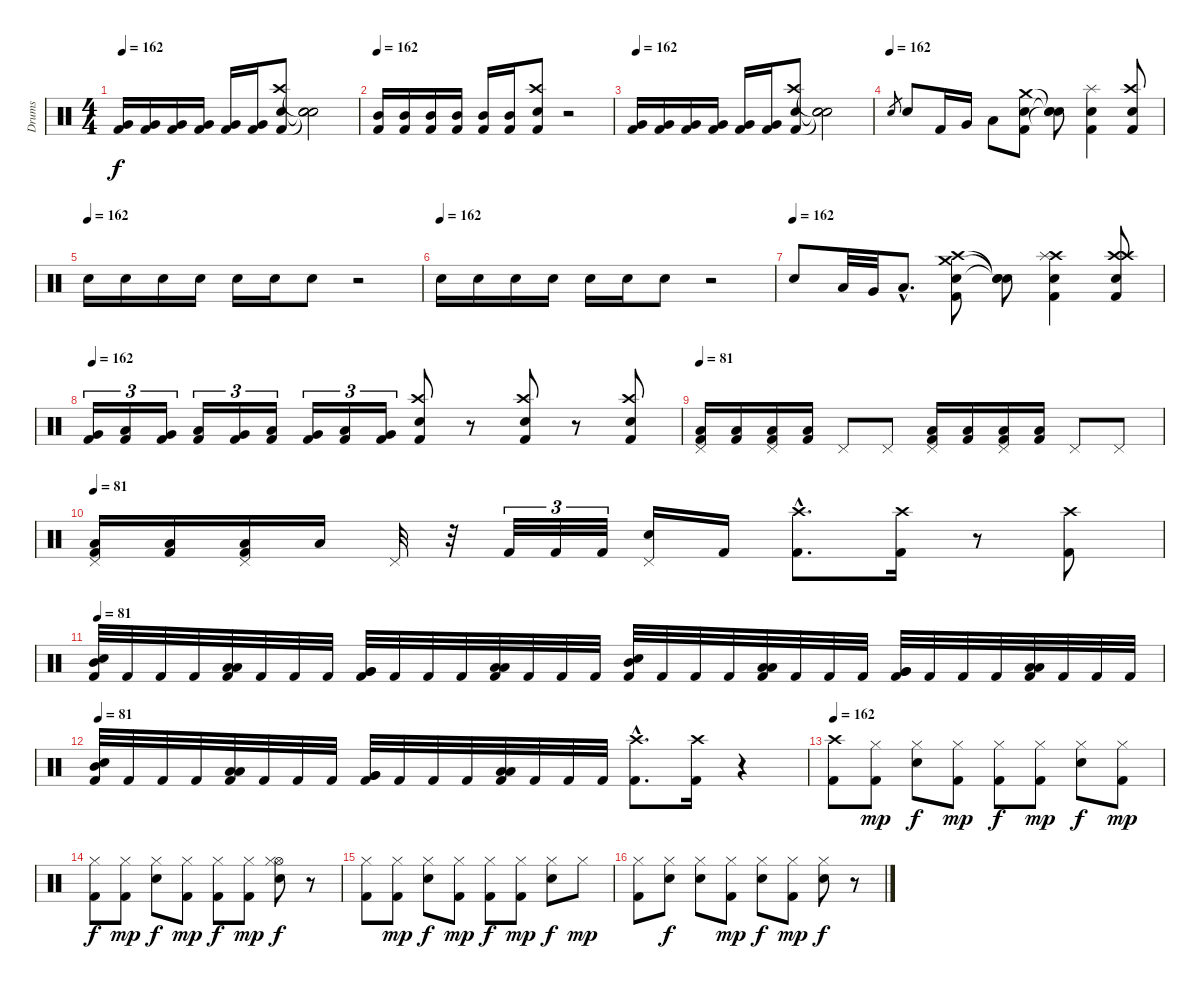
\track ("Drums" "Drums") {instrument percussion}
\staff {score}
\articulation defaults
\ts (4 4)
\tempo 162
\clef neutral
\ks c
("Very Low Tom (hit)" "Kick (hit) 2").16{dy f} ("Very Low Tom (hit)" "Kick (hit) 2").16 ("Very Low Tom (hit)" "Kick (hit) 2").16 ("Very Low Tom (hit)" "Kick (hit) 2").16 ("Very Low Tom (hit)" "Kick (hit) 2").16 ("Very Low Tom (hit)" "Kick (hit) 2").16 ("Crash high (hit)" "Electric Snare (hit)" "Kick (hit) 2").8 ("Snare (hit)"{t} "Snare (hit)"{t} "Snare (hit)"{t}).2 |
\tempo 162
("Mid Tom (hit)" "Kick (hit) 2").16 ("Mid Tom (hit)" "Kick (hit) 2").16 ("Mid Tom (hit)" "Kick (hit) 2").16 ("Mid Tom (hit)" "Kick (hit) 2").16 ("Mid Tom (hit)" "Kick (hit) 2").16 ("Mid Tom (hit)" "Kick (hit) 2").16 ("Crash high (hit)" "Electric Snare (hit)" "Kick (hit) 2").8 r.2 |
\tempo 162
("Very Low Tom (hit)" "Kick (hit) 2").16 ("Very Low Tom (hit)" "Kick (hit) 2").16 ("Very Low Tom (hit)" "Kick (hit) 2").16 ("Very Low Tom (hit)" "Kick (hit) 2").16 ("Very Low Tom (hit)" "Kick (hit) 2").16 ("Very Low Tom (hit)" "Kick (hit) 2").16 ("Crash high (hit)" "Electric Snare (hit)" "Kick (hit) 2").8 ("Snare (hit)"{t} "Snare (hit)"{t} "Snare (hit)"{t}).2 |
\tempo (162)
"Electric Snare (hit)".8{gr} "Electric Snare (hit)".8 "Kick (hit) 2".16 "Very Low Tom (hit)".16 "Low Floor Tom (hit)".8 ("Crash medium (hit)" "Electric Snare (hit)" "Kick (hit) 2").8 ("Snare (hit)"{t} "Snare (hit)"{t} "Snare (hit)"{t}).8 ("Splash (hit)" "Electric Snare (hit)" "Kick (hit) 2").4 ("Crash high (hit)" "Electric Snare (hit)" "Kick (hit) 2").8 |
\tempo (162)
"Electric Snare (hit)".16 "Electric Snare (hit)".16 "Electric Snare (hit)".16 "Electric Snare (hit)".16 "Electric Snare (hit)".16 "Electric Snare (hit)".16 "Electric Snare (hit)".8 r.2 |
\tempo (162)
"Electric Snare (hit)".16 "Electric Snare (hit)".16 "Electric Snare (hit)".16 "Electric Snare (hit)".16 "Electric Snare (hit)".16 "Electric Snare (hit)".16 "Electric Snare (hit)".8 r.2 |
\tempo (162)
"Electric Snare (hit)".8 "Low Tom (hit)".32 "Very Low Tom (hit)".32 "Low Floor Tom (hit)"{hac}.8{d} ("Crash high (hit)" "Crash medium (hit)" "Electric Snare (hit)" "Kick (hit) 2").8 ("Snare (hit)"{t} "Snare (hit)"{t} "Snare (hit)"{t}).8 ("Crash high (hit)" "Splash (hit)" "Electric Snare (hit)" "Kick (hit) 2").4 ("Crash high (hit)" "Crash high (hit)" "Electric Snare (hit)" "Kick (hit) 2").8 |
\tempo 162
("Very Low Tom (hit)" "Kick (hit) 2").16{tu (3 2)} ("Low Floor Tom (hit)" "Kick (hit) 2").16{tu (3 2)} ("Very Low Tom (hit)" "Kick (hit) 2").16{tu (3 2)} ("Low Floor Tom (hit)" "Kick (hit) 2").16{tu (3 2)} ("Very Low Tom (hit)" "Kick (hit) 2").16{tu (3 2)} ("Low Floor Tom (hit)" "Kick (hit) 2").16{tu (3 2)} ("Very Low Tom (hit)" "Kick (hit) 2").16{tu (3 2)} ("Low Floor Tom (hit)" "Kick (hit) 2").16{tu (3 2)} ("Very Low Tom (hit)" "Kick (hit) 2").16{tu (3 2)} ("Crash high (hit)" "Electric Snare (hit)" "Kick (hit) 2").8 r.8 ("Crash high (hit)" "Electric Snare (hit)" "Kick (hit) 2").8 r.8 ("Crash high (hit)" "Electric Snare (hit)" "Kick (hit) 2").8 |
\tempo 81
("Pedal Hi-Hat (hit)" "Low Floor Tom (hit)" "Kick (hit) 2").16 ("Low Floor Tom (hit)" "Kick (hit) 2").16 ("Pedal Hi-Hat (hit)" "Low Floor Tom (hit)" "Kick (hit) 2").16 ("Low Floor Tom (hit)" "Kick (hit) 2").16 "Pedal Hi-Hat (hit)".8 "Pedal Hi-Hat (hit)".8 ("Pedal Hi-Hat (hit)" "Low Floor Tom (hit)" "Kick (hit) 2").16 ("Low Floor Tom (hit)" "Kick (hit) 2").16 ("Pedal Hi-Hat (hit)" "Low Floor Tom (hit)" "Kick (hit) 2").16 ("Low Floor Tom (hit)" "Kick (hit) 2").16 "Pedal Hi-Hat (hit)".8 "Pedal Hi-Hat (hit)".8 |
\tempo 81
("Pedal Hi-Hat (hit)" "Low Floor Tom (hit)" "Kick (hit) 2").16 ("Low Floor Tom (hit)" "Kick (hit) 2").16 ("Pedal Hi-Hat (hit)" "Low Floor Tom (hit)" "Kick (hit) 2").16 "Low Floor Tom (hit)".16 "Pedal Hi-Hat (hit)".32 r.32 "Kick (hit) 2".32{tu (3 2)} "Kick (hit) 2".32{tu (3 2)} "Kick (hit) 2".32{tu (3 2)} ("Pedal Hi-Hat (hit)" "Electric Snare (hit)").16 "Kick (hit) 2".16 ("Crash high (hit)"{hac} "Kick (hit) 2"{hac}).8{d} ("Crash high (hit)" "Kick (hit) 2").16 r.8 ("Crash high (hit)" "Kick (hit) 2").8 |
\tempo 81
("Mid Tom (hit)" "Electric Snare (hit)" "Kick (hit) 2").32 "Kick (hit) 2".32 "Kick (hit) 2".32 "Kick (hit) 2".32 ("Low Tom (hit)" "Low Tom (hit)" "Kick (hit) 2").32 "Kick (hit) 2".32 "Kick (hit) 2".32 "Kick (hit) 2".32 ("Very Low Tom (hit)" "Very Low Tom (hit)" "Kick (hit) 2").32 "Kick (hit) 2".32 "Kick (hit) 2".32 "Kick (hit) 2".32 ("Low Floor Tom (hit)" "Low Floor Tom (hit)" "Kick (hit) 2").32 "Kick (hit) 2".32 "Kick (hit) 2".32 "Kick (hit) 2".32 ("Mid Tom (hit)" "Electric Snare (hit)" "Kick (hit) 2").32 "Kick (hit) 2".32 "Kick (hit) 2".32 "Kick (hit) 2".32 ("Low Tom (hit)" "Low Tom (hit)" "Kick (hit) 2").32 "Kick (hit) 2".32 "Kick (hit) 2".32 "Kick (hit) 2".32 ("Very Low Tom (hit)" "Very Low Tom (hit)" "Kick (hit) 2").32 "Kick (hit) 2".32 "Kick (hit) 2".32 "Kick (hit) 2".32 ("Low Floor Tom (hit)" "Low Floor Tom (hit)" "Kick (hit) 2").32 "Kick (hit) 2".32 "Kick (hit) 2".32 "Kick (hit) 2".32 |
\tempo 81
("Mid Tom (hit)" "Electric Snare (hit)" "Kick (hit) 2").32 "Kick (hit) 2".32 "Kick (hit) 2".32 "Kick (hit) 2".32 ("Low Tom (hit)" "Low Tom (hit)" "Kick (hit) 2").32 "Kick (hit) 2".32 "Kick (hit) 2".32 "Kick (hit) 2".32 ("Very Low Tom (hit)" "Very Low Tom (hit)" "Kick (hit) 2").32 "Kick (hit) 2".32 "Kick (hit) 2".32 "Kick (hit) 2".32 ("Low Floor Tom (hit)" "Low Floor Tom (hit)" "Kick (hit) 2").32 "Kick (hit) 2".32 "Kick (hit) 2".32 "Kick (hit) 2".32 ("Crash high (hit)"{hac} "Kick (hit) 2"{hac}).8{d} ("Crash high (hit)" "Kick (hit) 2").16 r.4 |
\tempo 162
("Crash high (hit)" "Kick (hit) 2").8 ("Hi-Hat (closed)" "Kick (hit) 2").8{dy mp} ("Hi-Hat (closed)" "Electric Snare (hit)").8{dy f} ("Hi-Hat (closed)" "Kick (hit) 2").8{dy mp} ("Hi-Hat (closed)" "Kick (hit) 2").8{dy f} ("Hi-Hat (closed)" "Kick (hit) 2").8{dy mp} ("Hi-Hat (closed)" "Electric Snare (hit)").8{dy f} ("Hi-Hat (closed)" "Kick (hit) 2").8{dy mp} |
("Hi-Hat (closed)" "Kick (hit) 2").8{dy f} ("Hi-Hat (closed)" "Kick (hit) 2").8{dy mp} ("Hi-Hat (closed)" "Electric Snare (hit)").8{dy f} ("Hi-Hat (closed)" "Kick (hit) 2").8{dy mp} ("Hi-Hat (closed)" "Kick (hit) 2").8{dy f} ("Hi-Hat (closed)" "Kick (hit) 2").8{dy mp} ("Hi-Hat (open)" "Hi-Hat (closed)" "Electric Snare (hit)").8{dy f} r.8 |
("Hi-Hat (closed)" "Kick (hit) 2").8 ("Hi-Hat (closed)" "Kick (hit) 2").8{dy mp} ("Hi-Hat (closed)" "Electric Snare (hit)").8{dy f} ("Hi-Hat (closed)" "Kick (hit) 2").8{dy mp} ("Hi-Hat (closed)" "Kick (hit) 2").8{dy f} ("Hi-Hat (closed)" "Kick (hit) 2").8{dy mp} ("Hi-Hat (closed)" "Electric Snare (hit)").8{dy f} "Hi-Hat (closed)".8{dy mp} |
("Hi-Hat (closed)" "Kick (hit) 2").8 ("Hi-Hat (closed)" "Electric Snare (hit)").8{dy f} ("Hi-Hat (closed)" "Electric Snare (hit)").8 ("Hi-Hat (closed)" "Kick (hit) 2").8{dy mp} ("Hi-Hat (closed)" "Electric Snare (hit)").8{dy f} ("Hi-Hat (closed)" "Kick (hit) 2").8{dy mp} ("Hi-Hat (closed)" "Electric Snare (hit)").8{dy f} r.8
